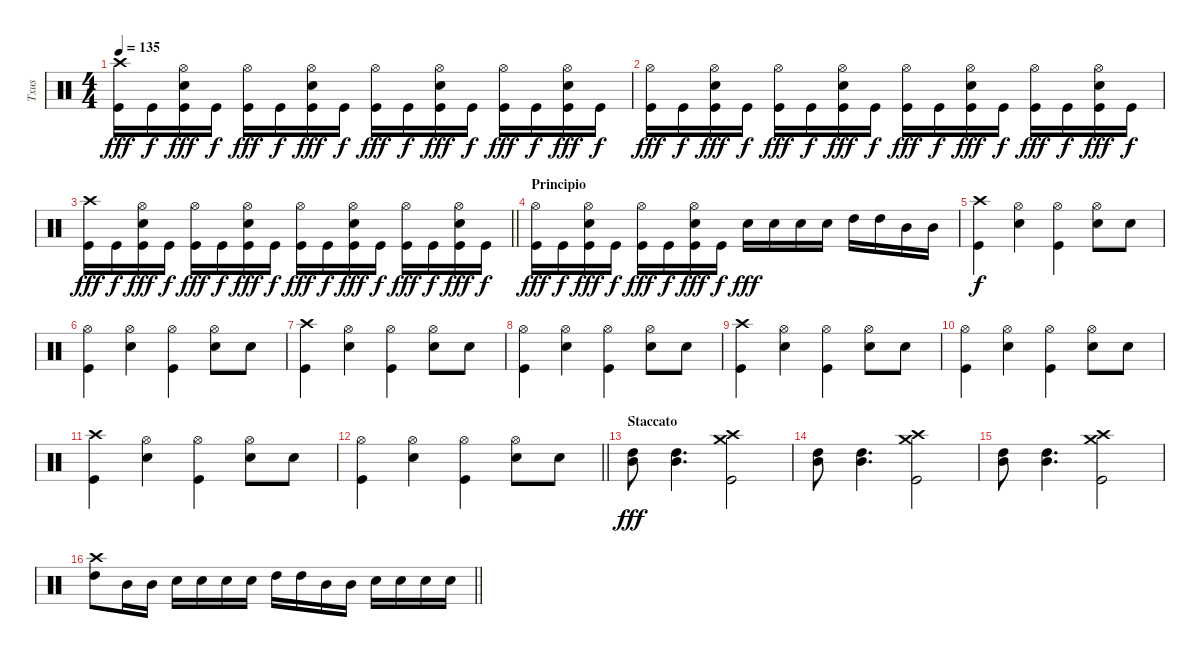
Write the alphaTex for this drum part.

\track ("Txus" "Txus") {instrument percussion}
\staff {score}
\articulation defaults
\ts (4 4)
\tempo 135
\clef neutral
\ks c
("Crash high (hit)" "Kick (hit)").16{dy fff} "Kick (hit)".16{dy f} ("Hi-Hat (open)" "Electric Snare (hit)" "Kick (hit)").16{dy fff} "Kick (hit)".16{dy f} ("Hi-Hat (open)" "Kick (hit)").16{dy fff} "Kick (hit)".16{dy f} ("Hi-Hat (open)" "Electric Snare (hit)" "Kick (hit)").16{dy fff} "Kick (hit)".16{dy f} ("Hi-Hat (open)" "Kick (hit)").16{dy fff} "Kick (hit)".16{dy f} ("Hi-Hat (open)" "Electric Snare (hit)" "Kick (hit)").16{dy fff} "Kick (hit)".16{dy f} ("Hi-Hat (open)" "Kick (hit)").16{dy fff} "Kick (hit)".16{dy f} ("Hi-Hat (open)" "Electric Snare (hit)" "Kick (hit)").16{dy fff} "Kick (hit)".16{dy f} |
("Hi-Hat (open)" "Kick (hit)").16{dy fff} "Kick (hit)".16{dy f} ("Hi-Hat (open)" "Electric Snare (hit)" "Kick (hit)").16{dy fff} "Kick (hit)".16{dy f} ("Hi-Hat (open)" "Kick (hit)").16{dy fff} "Kick (hit)".16{dy f} ("Hi-Hat (open)" "Electric Snare (hit)" "Kick (hit)").16{dy fff} "Kick (hit)".16{dy f} ("Hi-Hat (open)" "Kick (hit)").16{dy fff} "Kick (hit)".16{dy f} ("Hi-Hat (open)" "Electric Snare (hit)" "Kick (hit)").16{dy fff} "Kick (hit)".16{dy f} ("Hi-Hat (open)" "Kick (hit)").16{dy fff} "Kick (hit)".16{dy f} ("Hi-Hat (open)" "Electric Snare (hit)" "Kick (hit)").16{dy fff} "Kick (hit)".16{dy f} |
\barLineRight lightlight
("Crash high (hit)" "Kick (hit)").16{dy fff} "Kick (hit)".16{dy f} ("Hi-Hat (open)" "Electric Snare (hit)" "Kick (hit)").16{dy fff} "Kick (hit)".16{dy f} ("Hi-Hat (open)" "Kick (hit)").16{dy fff} "Kick (hit)".16{dy f} ("Hi-Hat (open)" "Electric Snare (hit)" "Kick (hit)").16{dy fff} "Kick (hit)".16{dy f} ("Hi-Hat (open)" "Kick (hit)").16{dy fff} "Kick (hit)".16{dy f} ("Hi-Hat (open)" "Electric Snare (hit)" "Kick (hit)").16{dy fff} "Kick (hit)".16{dy f} ("Hi-Hat (open)" "Kick (hit)").16{dy fff} "Kick (hit)".16{dy f} ("Hi-Hat (open)" "Electric Snare (hit)" "Kick (hit)").16{dy fff} "Kick (hit)".16{dy f} |
\section ("" "Principio")
("Hi-Hat (open)" "Kick (hit)").16{dy fff} "Kick (hit)".16{dy f} ("Hi-Hat (open)" "Electric Snare (hit)" "Kick (hit)").16{dy fff} "Kick (hit)".16{dy f} ("Hi-Hat (open)" "Kick (hit)").16{dy fff} "Kick (hit)".16{dy f} ("Hi-Hat (open)" "Electric Snare (hit)" "Kick (hit)").16{dy fff} "Kick (hit)".16{dy f} "Electric Snare (hit)".16{dy fff} "Electric Snare (hit)".16 "Electric Snare (hit)".16 "Electric Snare (hit)".16 "High Tom (hit)".16 "High Tom (hit)".16 "Mid Tom (hit)".16 "Mid Tom (hit)".16 |
("Crash high (hit)" "Kick (hit)").4{dy f} ("Hi-Hat (open)" "Electric Snare (hit)").4 ("Hi-Hat (open)" "Kick (hit)").4 ("Hi-Hat (open)" "Electric Snare (hit)").8 "Electric Snare (hit)".8 |
("Hi-Hat (open)" "Kick (hit)").4 ("Hi-Hat (open)" "Electric Snare (hit)").4 ("Hi-Hat (open)" "Kick (hit)").4 ("Hi-Hat (open)" "Electric Snare (hit)").8 "Electric Snare (hit)".8 |
("Crash high (hit)" "Kick (hit)").4 ("Hi-Hat (open)" "Electric Snare (hit)").4 ("Hi-Hat (open)" "Kick (hit)").4 ("Hi-Hat (open)" "Electric Snare (hit)").8 "Electric Snare (hit)".8 |
("Hi-Hat (open)" "Kick (hit)").4 ("Hi-Hat (open)" "Electric Snare (hit)").4 ("Hi-Hat (open)" "Kick (hit)").4 ("Hi-Hat (open)" "Electric Snare (hit)").8 "Electric Snare (hit)".8 |
("Crash high (hit)" "Kick (hit)").4 ("Hi-Hat (open)" "Electric Snare (hit)").4 ("Hi-Hat (open)" "Kick (hit)").4 ("Hi-Hat (open)" "Electric Snare (hit)").8 "Electric Snare (hit)".8 |
("Hi-Hat (open)" "Kick (hit)").4 ("Hi-Hat (open)" "Electric Snare (hit)").4 ("Hi-Hat (open)" "Kick (hit)").4 ("Hi-Hat (open)" "Electric Snare (hit)").8 "Electric Snare (hit)".8 |
("Crash high (hit)" "Kick (hit)").4 ("Hi-Hat (open)" "Electric Snare (hit)").4 ("Hi-Hat (open)" "Kick (hit)").4 ("Hi-Hat (open)" "Electric Snare (hit)").8 "Electric Snare (hit)".8 |
\barLineRight lightlight
("Hi-Hat (open)" "Kick (hit)").4 ("Hi-Hat (open)" "Electric Snare (hit)").4 ("Hi-Hat (open)" "Kick (hit)").4 ("Hi-Hat (open)" "Electric Snare (hit)").8 "Electric Snare (hit)".8 |
\section ("" "Staccato")
("High Tom (hit)" "Mid Tom (hit)").8{dy fff} ("High Tom (hit)" "Mid Tom (hit)").4{d} ("Crash high (hit)" "Crash medium (hit)" "Kick (hit)").2 |
("High Tom (hit)" "Mid Tom (hit)").8 ("High Tom (hit)" "Mid Tom (hit)").4{d} ("Crash high (hit)" "Crash medium (hit)" "Kick (hit)").2 |
("High Tom (hit)" "Mid Tom (hit)").8 ("High Tom (hit)" "Mid Tom (hit)").4{d} ("Crash high (hit)" "Crash medium (hit)" "Kick (hit)").2 |
\barLineRight lightlight
("Crash high (hit)" "High Tom (hit)").8 "Mid Tom (hit)".16 "Mid Tom (hit)".16 "Electric Snare (hit)".16 "Electric Snare (hit)".16 "Electric Snare (hit)".16 "Electric Snare (hit)".16 "High Tom (hit)".16 "High Tom (hit)".16 "Mid Tom (hit)".16 "Mid Tom (hit)".16 "Electric Snare (hit)".16 "Electric Snare (hit)".16 "Electric Snare (hit)".16 "Electric Snare (hit)".16
